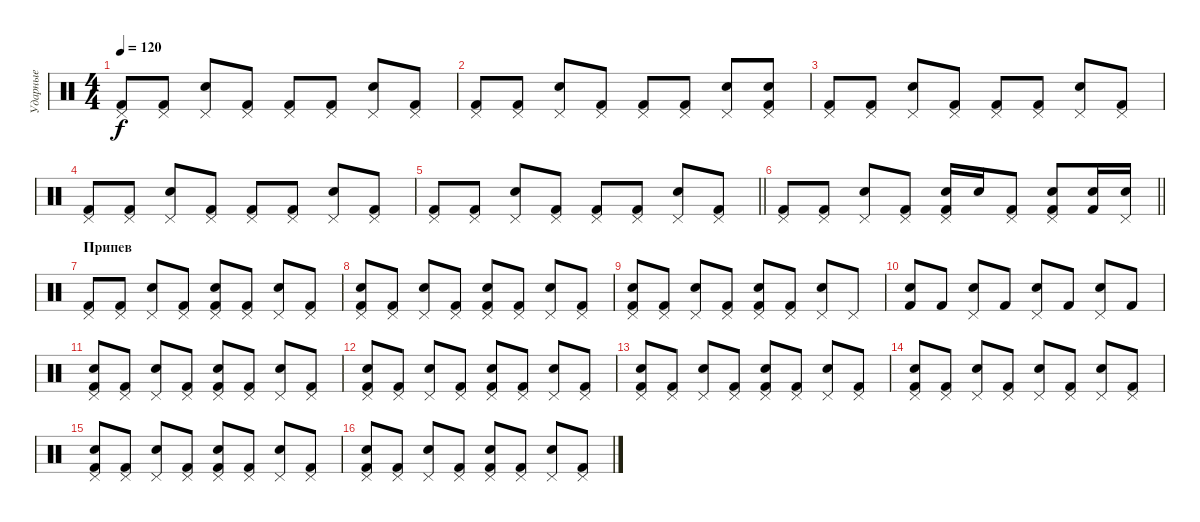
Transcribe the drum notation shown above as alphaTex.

\track ("Ударные" "Ударные") {instrument percussion}
\staff {score}
\articulation defaults
\ts (4 4)
\tempo 120
\clef neutral
\ks c
("Kick (hit) 2" "Pedal Hi-Hat (hit)").8{dy f} ("Kick (hit) 2" "Pedal Hi-Hat (hit)").8 ("Snare (hit) 2" "Pedal Hi-Hat (hit)").8 ("Kick (hit) 2" "Pedal Hi-Hat (hit)").8 ("Kick (hit) 2" "Pedal Hi-Hat (hit)").8 ("Kick (hit) 2" "Pedal Hi-Hat (hit)").8 ("Snare (hit) 2" "Pedal Hi-Hat (hit)").8 ("Kick (hit) 2" "Pedal Hi-Hat (hit)").8 |
("Kick (hit) 2" "Pedal Hi-Hat (hit)").8 ("Kick (hit) 2" "Pedal Hi-Hat (hit)").8 ("Snare (hit) 2" "Pedal Hi-Hat (hit)").8 ("Kick (hit) 2" "Pedal Hi-Hat (hit)").8 ("Kick (hit) 2" "Pedal Hi-Hat (hit)").8 ("Kick (hit) 2" "Pedal Hi-Hat (hit)").8 ("Snare (hit) 2" "Pedal Hi-Hat (hit)").8 ("Kick (hit) 2" "Snare (hit) 2" "Pedal Hi-Hat (hit)").8 |
("Kick (hit) 2" "Pedal Hi-Hat (hit)").8 ("Kick (hit) 2" "Pedal Hi-Hat (hit)").8 ("Snare (hit) 2" "Pedal Hi-Hat (hit)").8 ("Kick (hit) 2" "Pedal Hi-Hat (hit)").8 ("Kick (hit) 2" "Pedal Hi-Hat (hit)").8 ("Kick (hit) 2" "Pedal Hi-Hat (hit)").8 ("Snare (hit) 2" "Pedal Hi-Hat (hit)").8 ("Kick (hit) 2" "Pedal Hi-Hat (hit)").8 |
("Kick (hit) 2" "Pedal Hi-Hat (hit)").8 ("Kick (hit) 2" "Pedal Hi-Hat (hit)").8 ("Snare (hit) 2" "Pedal Hi-Hat (hit)").8 ("Kick (hit) 2" "Pedal Hi-Hat (hit)").8 ("Kick (hit) 2" "Pedal Hi-Hat (hit)").8 ("Kick (hit) 2" "Pedal Hi-Hat (hit)").8 ("Snare (hit) 2" "Pedal Hi-Hat (hit)").8 ("Kick (hit) 2" "Pedal Hi-Hat (hit)").8 |
\barLineRight lightlight
("Kick (hit) 2" "Pedal Hi-Hat (hit)").8 ("Kick (hit) 2" "Pedal Hi-Hat (hit)").8 ("Snare (hit) 2" "Pedal Hi-Hat (hit)").8 ("Kick (hit) 2" "Pedal Hi-Hat (hit)").8 ("Kick (hit) 2" "Pedal Hi-Hat (hit)").8 ("Kick (hit) 2" "Pedal Hi-Hat (hit)").8 ("Snare (hit) 2" "Pedal Hi-Hat (hit)").8 ("Kick (hit) 2" "Pedal Hi-Hat (hit)").8 |
\barLineRight lightlight
("Kick (hit) 2" "Pedal Hi-Hat (hit)").8 ("Kick (hit) 2" "Pedal Hi-Hat (hit)").8 ("Snare (hit) 2" "Pedal Hi-Hat (hit)").8 ("Kick (hit) 2" "Pedal Hi-Hat (hit)").8 ("Kick (hit) 2" "Snare (hit) 2" "Pedal Hi-Hat (hit)").16 "Snare (hit) 2".16 ("Kick (hit) 2" "Pedal Hi-Hat (hit)").8 ("Kick (hit) 2" "Snare (hit) 2" "Pedal Hi-Hat (hit)").8 ("Kick (hit) 2" "Snare (hit) 2").16 ("Snare (hit) 2" "Pedal Hi-Hat (hit)").16 |
\section ("" "Припев ")
("Kick (hit) 2" "Pedal Hi-Hat (hit)").8 ("Kick (hit) 2" "Pedal Hi-Hat (hit)").8 ("Snare (hit) 2" "Pedal Hi-Hat (hit)").8 ("Kick (hit) 2" "Pedal Hi-Hat (hit)").8 ("Kick (hit) 2" "Snare (hit) 2" "Pedal Hi-Hat (hit)").8 ("Kick (hit) 2" "Pedal Hi-Hat (hit)").8 ("Snare (hit) 2" "Pedal Hi-Hat (hit)").8 ("Kick (hit) 2" "Pedal Hi-Hat (hit)").8 |
("Kick (hit) 2" "Snare (hit) 2" "Pedal Hi-Hat (hit)").8 ("Kick (hit) 2" "Pedal Hi-Hat (hit)").8 ("Snare (hit) 2" "Pedal Hi-Hat (hit)").8 ("Kick (hit) 2" "Pedal Hi-Hat (hit)").8 ("Kick (hit) 2" "Snare (hit) 2" "Pedal Hi-Hat (hit)").8 ("Kick (hit) 2" "Pedal Hi-Hat (hit)").8 ("Snare (hit) 2" "Pedal Hi-Hat (hit)").8 ("Kick (hit) 2" "Pedal Hi-Hat (hit)").8 |
("Kick (hit) 2" "Snare (hit) 2" "Pedal Hi-Hat (hit)").8 ("Kick (hit) 2" "Pedal Hi-Hat (hit)").8 ("Snare (hit) 2" "Pedal Hi-Hat (hit)").8 ("Kick (hit) 2" "Pedal Hi-Hat (hit)").8 ("Kick (hit) 2" "Snare (hit) 2" "Pedal Hi-Hat (hit)").8 ("Kick (hit) 2" "Pedal Hi-Hat (hit)").8 ("Snare (hit) 2" "Pedal Hi-Hat (hit)").8 "Pedal Hi-Hat (hit)".8 |
("Kick (hit) 2" "Snare (hit) 2").8 "Kick (hit) 2".8 ("Snare (hit) 2" "Pedal Hi-Hat (hit)").8 "Kick (hit) 2".8 ("Snare (hit) 2" "Pedal Hi-Hat (hit)").8 "Kick (hit) 2".8 ("Snare (hit) 2" "Pedal Hi-Hat (hit)").8 "Kick (hit) 2".8 |
("Kick (hit) 2" "Snare (hit) 2" "Pedal Hi-Hat (hit)").8 ("Kick (hit) 2" "Pedal Hi-Hat (hit)").8 ("Snare (hit) 2" "Pedal Hi-Hat (hit)").8 ("Kick (hit) 2" "Pedal Hi-Hat (hit)").8 ("Kick (hit) 2" "Snare (hit) 2" "Pedal Hi-Hat (hit)").8 ("Kick (hit) 2" "Pedal Hi-Hat (hit)").8 ("Snare (hit) 2" "Pedal Hi-Hat (hit)").8 ("Kick (hit) 2" "Pedal Hi-Hat (hit)").8 |
("Kick (hit) 2" "Snare (hit) 2" "Pedal Hi-Hat (hit)").8 ("Kick (hit) 2" "Pedal Hi-Hat (hit)").8 ("Snare (hit) 2" "Pedal Hi-Hat (hit)").8 ("Kick (hit) 2" "Pedal Hi-Hat (hit)").8 ("Kick (hit) 2" "Snare (hit) 2" "Pedal Hi-Hat (hit)").8 ("Kick (hit) 2" "Pedal Hi-Hat (hit)").8 ("Snare (hit) 2" "Pedal Hi-Hat (hit)").8 ("Kick (hit) 2" "Pedal Hi-Hat (hit)").8 |
("Kick (hit) 2" "Snare (hit) 2" "Pedal Hi-Hat (hit)").8 ("Kick (hit) 2" "Pedal Hi-Hat (hit)").8 ("Snare (hit) 2" "Pedal Hi-Hat (hit)").8 ("Kick (hit) 2" "Pedal Hi-Hat (hit)").8 ("Kick (hit) 2" "Snare (hit) 2" "Pedal Hi-Hat (hit)").8 ("Kick (hit) 2" "Pedal Hi-Hat (hit)").8 ("Snare (hit) 2" "Pedal Hi-Hat (hit)").8 ("Kick (hit) 2" "Pedal Hi-Hat (hit)").8 |
("Kick (hit) 2" "Snare (hit) 2" "Pedal Hi-Hat (hit)").8 ("Kick (hit) 2" "Pedal Hi-Hat (hit)").8 ("Snare (hit) 2" "Pedal Hi-Hat (hit)").8 ("Kick (hit) 2" "Pedal Hi-Hat (hit)").8 ("Snare (hit) 2" "Pedal Hi-Hat (hit)").8 ("Kick (hit) 2" "Pedal Hi-Hat (hit)").8 ("Snare (hit) 2" "Pedal Hi-Hat (hit)").8 ("Kick (hit) 2" "Pedal Hi-Hat (hit)").8 |
("Kick (hit) 2" "Snare (hit) 2" "Pedal Hi-Hat (hit)").8 ("Kick (hit) 2" "Pedal Hi-Hat (hit)").8 ("Snare (hit) 2" "Pedal Hi-Hat (hit)").8 ("Kick (hit) 2" "Pedal Hi-Hat (hit)").8 ("Kick (hit) 2" "Snare (hit) 2" "Pedal Hi-Hat (hit)").8 ("Kick (hit) 2" "Pedal Hi-Hat (hit)").8 ("Snare (hit) 2" "Pedal Hi-Hat (hit)").8 ("Kick (hit) 2" "Pedal Hi-Hat (hit)").8 |
("Kick (hit) 2" "Snare (hit) 2" "Pedal Hi-Hat (hit)").8 ("Kick (hit) 2" "Pedal Hi-Hat (hit)").8 ("Snare (hit) 2" "Pedal Hi-Hat (hit)").8 ("Kick (hit) 2" "Pedal Hi-Hat (hit)").8 ("Kick (hit) 2" "Snare (hit) 2" "Pedal Hi-Hat (hit)").8 ("Kick (hit) 2" "Pedal Hi-Hat (hit)").8 ("Snare (hit) 2" "Pedal Hi-Hat (hit)").8 ("Kick (hit) 2" "Pedal Hi-Hat (hit)").8
